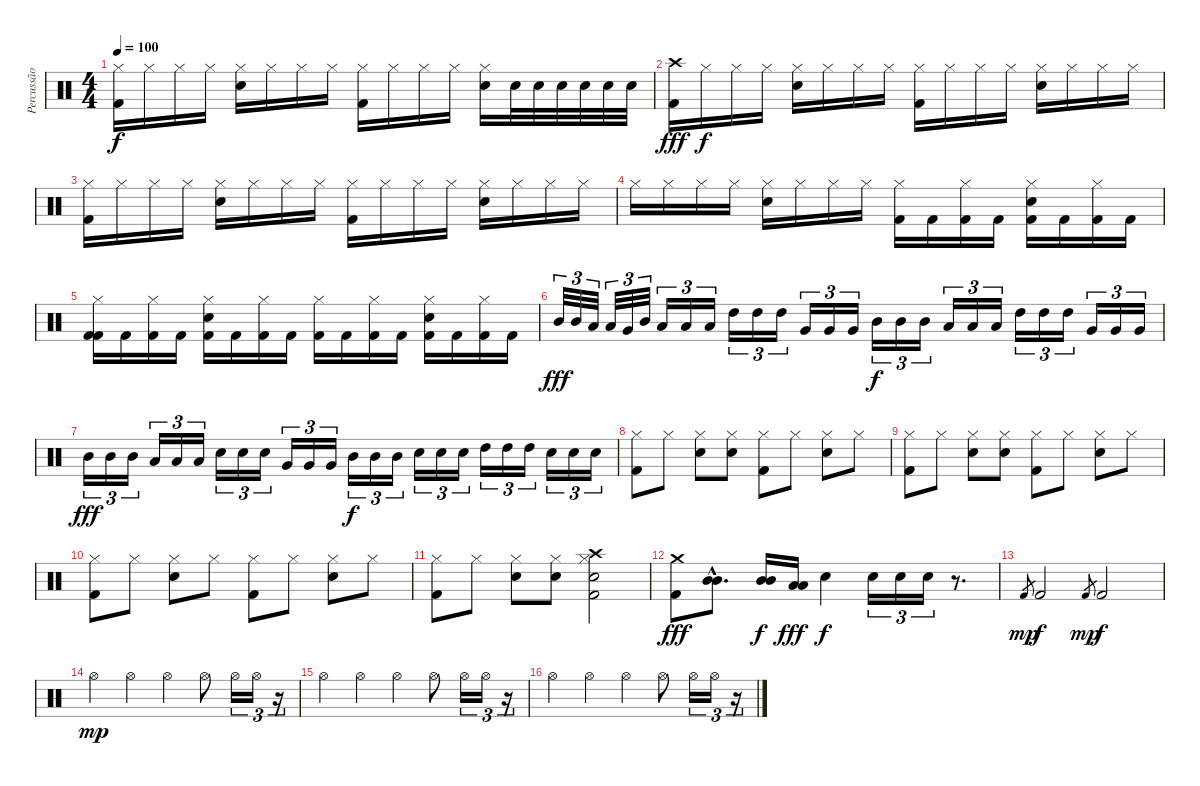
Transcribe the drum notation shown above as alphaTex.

\track ("Percussão" "Percussão") {instrument percussion}
\staff {score}
\articulation defaults
\ts (4 4)
\tempo 100
\clef neutral
\ks c
("Hi-Hat (closed)" "Kick (hit) 2").16{dy f} "Hi-Hat (closed)".16 "Hi-Hat (closed)".16 "Hi-Hat (closed)".16 ("Hi-Hat (closed)" "Snare (hit) 2").16 "Hi-Hat (closed)".16 "Hi-Hat (closed)".16 "Hi-Hat (closed)".16 ("Hi-Hat (closed)" "Kick (hit) 2").16 "Hi-Hat (closed)".16 "Hi-Hat (closed)".16 "Hi-Hat (closed)".16 ("Hi-Hat (closed)" "Snare (hit) 2").16 "Snare (hit) 2".32 "Snare (hit) 2".32 "Snare (hit) 2".32 "Snare (hit) 2".32 "Snare (hit) 2".32 "Snare (hit) 2".32 |
("Kick (hit) 2" "Crash high (hit)").16{dy fff} "Hi-Hat (closed)".16{dy f} "Hi-Hat (closed)".16 "Hi-Hat (closed)".16 ("Hi-Hat (closed)" "Snare (hit) 2").16 "Hi-Hat (closed)".16 "Hi-Hat (closed)".16 "Hi-Hat (closed)".16 ("Hi-Hat (closed)" "Kick (hit) 2").16 "Hi-Hat (closed)".16 "Hi-Hat (closed)".16 "Hi-Hat (closed)".16 ("Hi-Hat (closed)" "Snare (hit) 2").16 "Hi-Hat (closed)".16 "Hi-Hat (closed)".16 "Hi-Hat (closed)".16 |
("Hi-Hat (closed)" "Kick (hit) 2").16 "Hi-Hat (closed)".16 "Hi-Hat (closed)".16 "Hi-Hat (closed)".16 ("Hi-Hat (closed)" "Snare (hit) 2").16 "Hi-Hat (closed)".16 "Hi-Hat (closed)".16 "Hi-Hat (closed)".16 ("Hi-Hat (closed)" "Kick (hit) 2").16 "Hi-Hat (closed)".16 "Hi-Hat (closed)".16 "Hi-Hat (closed)".16 ("Hi-Hat (closed)" "Snare (hit) 2").16 "Hi-Hat (closed)".16 "Hi-Hat (closed)".16 "Hi-Hat (closed)".16 |
"Hi-Hat (closed)".16 "Hi-Hat (closed)".16 "Hi-Hat (closed)".16 "Hi-Hat (closed)".16 ("Hi-Hat (closed)" "Snare (hit) 2").16 "Hi-Hat (closed)".16 "Hi-Hat (closed)".16 "Hi-Hat (closed)".16 ("Hi-Hat (closed)" "Kick (hit) 2").16 "Kick (hit) 2".16 ("Hi-Hat (closed)" "Kick (hit) 2").16 "Kick (hit) 2".16 ("Hi-Hat (closed)" "Snare (hit) 2" "Kick (hit) 2").16 "Kick (hit) 2".16 ("Hi-Hat (closed)" "Kick (hit) 2").16 "Kick (hit) 2".16 |
("Hi-Hat (closed)" "Kick (hit) 2" "Kick (hit) 2").16 "Kick (hit) 2".16 ("Hi-Hat (closed)" "Kick (hit) 2").16 "Kick (hit) 2".16 ("Hi-Hat (closed)" "Snare (hit) 2" "Kick (hit) 2").16 "Kick (hit) 2".16 ("Hi-Hat (closed)" "Kick (hit) 2").16 "Kick (hit) 2".16 ("Hi-Hat (closed)" "Kick (hit) 2").16 "Kick (hit) 2".16 ("Hi-Hat (closed)" "Kick (hit) 2").16 "Kick (hit) 2".16 ("Hi-Hat (closed)" "Snare (hit) 2" "Kick (hit) 2").16 "Kick (hit) 2".16 ("Hi-Hat (closed)" "Kick (hit) 2").16 "Kick (hit) 2".16 |
"Mid Tom (hit)".32{tu (3 2) dy fff} "Mid Tom (hit)".32{tu (3 2)} "Low Tom (hit)".32{tu (3 2)} "Low Tom (hit)".32{tu (3 2)} "Very Low Tom (hit)".32{tu (3 2)} "Mid Tom (hit)".32{tu (3 2)} "Low Tom (hit)".16{tu (3 2)} "Low Tom (hit)".16{tu (3 2)} "Low Tom (hit)".16{tu (3 2)} "High Tom (hit)".16{tu (3 2)} "High Tom (hit)".16{tu (3 2)} "High Tom (hit)".16{tu (3 2)} "Very Low Tom (hit)".16{tu (3 2)} "Very Low Tom (hit)".16{tu (3 2)} "Very Low Tom (hit)".16{tu (3 2)} "Mid Tom (hit)".16{tu (3 2) dy f} "Mid Tom (hit)".16{tu (3 2)} "Mid Tom (hit)".16{tu (3 2)} "Low Tom (hit)".16{tu (3 2)} "Low Tom (hit)".16{tu (3 2)} "Low Tom (hit)".16{tu (3 2)} "High Tom (hit)".16{tu (3 2)} "High Tom (hit)".16{tu (3 2)} "High Tom (hit)".16{tu (3 2)} "Very Low Tom (hit)".16{tu (3 2)} "Very Low Tom (hit)".16{tu (3 2)} "Very Low Tom (hit)".16{tu (3 2)} |
"Mid Tom (hit)".16{tu (3 2) dy fff} "Mid Tom (hit)".16{tu (3 2)} "Mid Tom (hit)".16{tu (3 2)} "Low Tom (hit)".16{tu (3 2)} "Low Tom (hit)".16{tu (3 2)} "Low Tom (hit)".16{tu (3 2)} "Snare (hit) 2".16{tu (3 2)} "Snare (hit) 2".16{tu (3 2)} "Snare (hit) 2".16{tu (3 2)} "Very Low Tom (hit)".16{tu (3 2)} "Very Low Tom (hit)".16{tu (3 2)} "Very Low Tom (hit)".16{tu (3 2)} "Mid Tom (hit)".16{tu (3 2) dy f} "Mid Tom (hit)".16{tu (3 2)} "Mid Tom (hit)".16{tu (3 2)} "Snare (hit) 2".16{tu (3 2)} "Snare (hit) 2".16{tu (3 2)} "Snare (hit) 2".16{tu (3 2)} "High Tom (hit)".16{tu (3 2)} "High Tom (hit)".16{tu (3 2)} "High Tom (hit)".16{tu (3 2)} "Electric Snare (hit)".16{tu (3 2)} "Electric Snare (hit)".16{tu (3 2)} "Electric Snare (hit)".16{tu (3 2)} |
("Hi-Hat (closed)" "Kick (hit) 2").8 "Hi-Hat (closed)".8 ("Hi-Hat (closed)" "Snare (hit) 2").8 ("Hi-Hat (closed)" "Snare (hit) 2").8 ("Hi-Hat (closed)" "Kick (hit) 2").8 "Hi-Hat (closed)".8 ("Hi-Hat (closed)" "Snare (hit) 2").8 "Hi-Hat (closed)".8 |
("Hi-Hat (closed)" "Kick (hit) 2").8 "Hi-Hat (closed)".8 ("Hi-Hat (closed)" "Snare (hit) 2").8 ("Hi-Hat (closed)" "Snare (hit) 2").8 ("Hi-Hat (closed)" "Kick (hit) 2").8 "Hi-Hat (closed)".8 ("Hi-Hat (closed)" "Snare (hit) 2").8 "Hi-Hat (closed)".8 |
("Hi-Hat (closed)" "Kick (hit) 2").8 "Hi-Hat (closed)".8 ("Hi-Hat (closed)" "Snare (hit) 2").8 "Hi-Hat (closed)".8 ("Hi-Hat (closed)" "Kick (hit) 2").8 "Hi-Hat (closed)".8 ("Hi-Hat (closed)" "Snare (hit) 2").8 "Hi-Hat (closed)".8 |
("Hi-Hat (closed)" "Kick (hit) 2").8 "Hi-Hat (closed)".8 ("Hi-Hat (closed)" "Snare (hit) 2").8 ("Hi-Hat (closed)" "Snare (hit) 2").8 ("Hi-Hat (closed)" "Crash high (hit)" "Kick (hit) 2" "Snare (hit) 2").2 |
("Crash medium (hit)" "Kick (hit) 2").8{dy fff} ("Mid Tom (hit)"{hac} "Mid Tom (hit)"{hac}).8{d} ("Mid Tom (hit)" "Mid Tom (hit)").16{dy f} ("Low Tom (hit)" "Low Tom (hit)").16{dy fff} "Snare (hit) 2".4{dy f} "Snare (hit) 2".16{tu (3 2)} "Snare (hit) 2".16{tu (3 2)} "Snare (hit) 2".16{tu (3 2)} r.8{d} |
"Kick (hit) 2".8{gr dy mp} "Kick (hit) 2".2{dy f} "Kick (hit) 2".8{gr dy mp} "Kick (hit) 2".2{dy f} |
"Hi-Hat (open)".4{dy mp} "Hi-Hat (open)".4 "Hi-Hat (open)".4 "Hi-Hat (open)".8 "Hi-Hat (open)".16{tu (3 2)} "Hi-Hat (open)".16{tu (3 2)} r.16{tu (3 2)} |
"Hi-Hat (open)".4 "Hi-Hat (open)".4 "Hi-Hat (open)".4 "Hi-Hat (open)".8 "Hi-Hat (open)".16{tu (3 2)} "Hi-Hat (open)".16{tu (3 2)} r.16{tu (3 2)} |
"Hi-Hat (open)".4 "Hi-Hat (open)".4 "Hi-Hat (open)".4 "Hi-Hat (open)".8 "Hi-Hat (open)".16{tu (3 2)} "Hi-Hat (open)".16{tu (3 2)} r.16{tu (3 2)}
